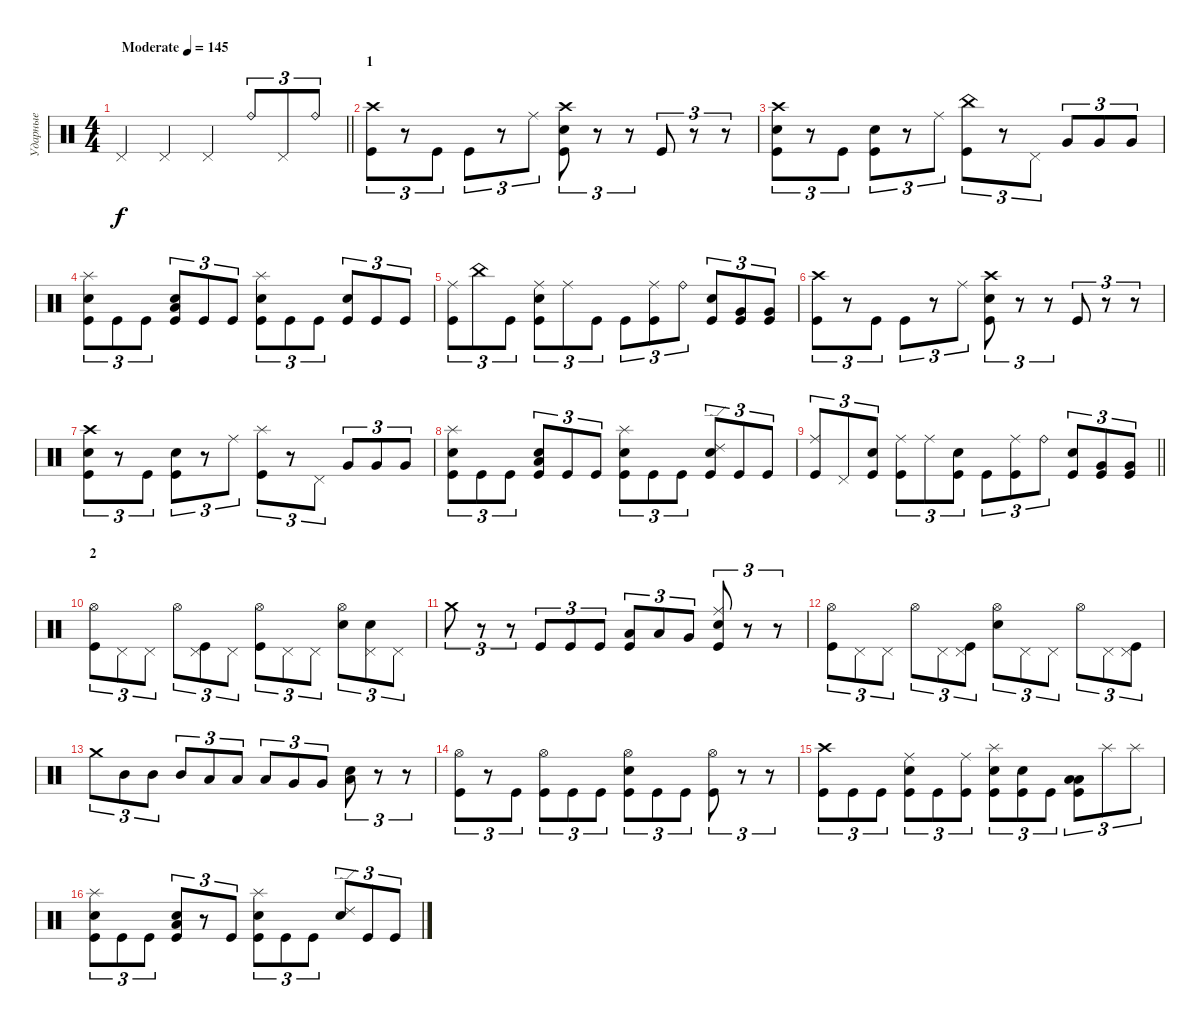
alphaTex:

\track ("Ударные" "Ударные") {instrument percussion}
\staff {score}
\articulation defaults
\ts (4 4)
\tempo (145 "Moderate")
\clef neutral
\barLineRight lightlight
\ks c "Pedal Hi-Hat (hit)".4{dy f} "Pedal Hi-Hat (hit)".4 "Pedal Hi-Hat (hit)".4 "Ride (bell)".8{tu (3 2)} "Pedal Hi-Hat (hit)".8{tu (3 2)} "Ride (bell)".8{tu (3 2)}
|
\section ("" "1")
("Crash high (hit)" "Kick (hit)").8{tu (3 2)} r.8{tu (3 2)} "Kick (hit)".8{tu (3 2)} "Kick (hit)".8{tu (3 2)} r.8{tu (3 2)} "Ride (middle)".8{tu (3 2)} ("Crash high (hit)" "Electric Snare (hit)" "Kick (hit)").8{tu (3 2)} r.8{tu (3 2)} r.8{tu (3 2)} "Kick (hit)".8{tu (3 2)} r.8{tu (3 2)} r.8{tu (3 2)} |
("Crash high (hit)" "Electric Snare (hit)" "Kick (hit)").8{tu (3 2)} r.8{tu (3 2)} "Kick (hit)".8{tu (3 2)} ("Electric Snare (hit)" "Kick (hit)").8{tu (3 2)} r.8{tu (3 2)} "Ride (middle)".8{tu (3 2)} ("China (hit)" "Kick (hit)").8{tu (3 2)} r.8{tu (3 2)} "Pedal Hi-Hat (hit)".8{tu (3 2)} "Very Low Tom (hit)".8{tu (3 2)} "Very Low Tom (hit)".8{tu (3 2)} "Very Low Tom (hit)".8{tu (3 2)} |
("Splash (hit)" "Electric Snare (hit)" "Kick (hit)").8{tu (3 2)} "Kick (hit)".8{tu (3 2)} "Kick (hit)".8{tu (3 2)} ("Low Tom (hit)" "Electric Snare (hit)" "Kick (hit)").8{tu (3 2)} "Kick (hit)".8{tu (3 2)} "Kick (hit)".8{tu (3 2)} ("Splash (hit)" "Electric Snare (hit)" "Kick (hit)").8{tu (3 2)} "Kick (hit)".8{tu (3 2)} "Kick (hit)".8{tu (3 2)} ("Electric Snare (hit)" "Kick (hit)").8{tu (3 2)} "Kick (hit)".8{tu (3 2)} "Kick (hit)".8{tu (3 2)} |
("Ride (middle)" "Kick (hit)").8{tu (3 2)} "China (hit)".8{tu (3 2)} "Kick (hit)".8{tu (3 2)} ("Ride (middle)" "Electric Snare (hit)" "Kick (hit)").8{tu (3 2)} "Ride (middle)".8{tu (3 2)} "Kick (hit)".8{tu (3 2)} "Kick (hit)".8{tu (3 2)} ("Ride (middle)" "Kick (hit)").8{tu (3 2)} "Ride (bell)".8{tu (3 2)} ("Electric Snare (hit)" "Kick (hit)").8{tu (3 2)} ("Very Low Tom (hit)" "Kick (hit)").8{tu (3 2)} ("Very Low Tom (hit)" "Kick (hit)").8{tu (3 2)} |
("Crash high (hit)" "Kick (hit)").8{tu (3 2)} r.8{tu (3 2)} "Kick (hit)".8{tu (3 2)} "Kick (hit)".8{tu (3 2)} r.8{tu (3 2)} "Ride (middle)".8{tu (3 2)} ("Crash high (hit)" "Electric Snare (hit)" "Kick (hit)").8{tu (3 2)} r.8{tu (3 2)} r.8{tu (3 2)} "Kick (hit)".8{tu (3 2)} r.8{tu (3 2)} r.8{tu (3 2)} |
("Crash high (hit)" "Electric Snare (hit)" "Kick (hit)").8{tu (3 2)} r.8{tu (3 2)} "Kick (hit)".8{tu (3 2)} ("Electric Snare (hit)" "Kick (hit)").8{tu (3 2)} r.8{tu (3 2)} "Ride (middle)".8{tu (3 2)} ("Splash (hit)" "Kick (hit)").8{tu (3 2)} r.8{tu (3 2)} "Pedal Hi-Hat (hit)".8{tu (3 2)} "Very Low Tom (hit)".8{tu (3 2)} "Very Low Tom (hit)".8{tu (3 2)} "Very Low Tom (hit)".8{tu (3 2)} |
("Splash (hit)" "Electric Snare (hit)" "Kick (hit)").8{tu (3 2)} "Kick (hit)".8{tu (3 2)} "Kick (hit)".8{tu (3 2)} ("Low Tom (hit)" "Electric Snare (hit)" "Kick (hit)").8{tu (3 2)} "Kick (hit)".8{tu (3 2)} "Kick (hit)".8{tu (3 2)} ("Splash (hit)" "Electric Snare (hit)" "Kick (hit)").8{tu (3 2)} "Kick (hit)".8{tu (3 2)} "Kick (hit)".8{tu (3 2)} ("Ride (edge) 2" "Electric Snare (hit)" "Kick (hit)").8{tu (3 2)} "Kick (hit)".8{tu (3 2)} "Kick (hit)".8{tu (3 2)} |
\barLineRight lightlight
("Ride (middle)" "Kick (hit)").8{tu (3 2)} "Pedal Hi-Hat (hit)".8{tu (3 2)} ("Electric Snare (hit)" "Kick (hit)").8{tu (3 2)} ("Ride (middle)" "Kick (hit)").8{tu (3 2)} "Ride (middle)".8{tu (3 2)} ("Electric Snare (hit)" "Kick (hit)").8{tu (3 2)} "Kick (hit)".8{tu (3 2)} ("Ride (middle)" "Kick (hit)").8{tu (3 2)} "Ride (bell)".8{tu (3 2)} ("Electric Snare (hit)" "Kick (hit)").8{tu (3 2)} ("Very Low Tom (hit)" "Kick (hit)").8{tu (3 2)} ("Very Low Tom (hit)" "Kick (hit)").8{tu (3 2)} |
\section ("" "2")
("Hi-Hat (open)" "Kick (hit)").8{tu (3 2)} "Pedal Hi-Hat (hit)".8{tu (3 2)} "Pedal Hi-Hat (hit)".8{tu (3 2)} "Hi-Hat (open)".8{tu (3 2)} ("Pedal Hi-Hat (hit)" "Kick (hit)").8{tu (3 2)} "Pedal Hi-Hat (hit)".8{tu (3 2)} ("Hi-Hat (open)" "Kick (hit)").8{tu (3 2)} "Pedal Hi-Hat (hit)".8{tu (3 2)} "Pedal Hi-Hat (hit)".8{tu (3 2)} ("Hi-Hat (open)" "Electric Snare (hit)").8{tu (3 2)} ("Pedal Hi-Hat (hit)" "Electric Snare (hit)").8{tu (3 2)} "Pedal Hi-Hat (hit)".8{tu (3 2)} |
"Crash medium (hit)".8{tu (3 2)} r.8{tu (3 2)} r.8{tu (3 2)} "Kick (hit)".8{tu (3 2)} "Kick (hit)".8{tu (3 2)} "Kick (hit)".8{tu (3 2)} ("Low Tom (hit)" "Kick (hit)").8{tu (3 2)} "Low Tom (hit)".8{tu (3 2)} "Very Low Tom (hit)".8{tu (3 2)} ("Ride (middle)" "Electric Snare (hit)" "Kick (hit)").8{tu (3 2)} r.8{tu (3 2)} r.8{tu (3 2)} |
("Hi-Hat (open)" "Kick (hit)").8{tu (3 2)} "Pedal Hi-Hat (hit)".8{tu (3 2)} "Pedal Hi-Hat (hit)".8{tu (3 2)} "Hi-Hat (open)".8{tu (3 2)} "Pedal Hi-Hat (hit)".8{tu (3 2)} ("Pedal Hi-Hat (hit)" "Kick (hit)").8{tu (3 2)} ("Hi-Hat (open)" "Electric Snare (hit)").8{tu (3 2)} "Pedal Hi-Hat (hit)".8{tu (3 2)} "Pedal Hi-Hat (hit)".8{tu (3 2)} "Hi-Hat (open)".8{tu (3 2)} "Pedal Hi-Hat (hit)".8{tu (3 2)} ("Pedal Hi-Hat (hit)" "Kick (hit)").8{tu (3 2)} |
"Crash medium (hit)".8{tu (3 2)} "Mid Tom (hit)".8{tu (3 2)} "Mid Tom (hit)".8{tu (3 2)} "Mid Tom (hit)".8{tu (3 2)} "Low Tom (hit)".8{tu (3 2)} "Low Tom (hit)".8{tu (3 2)} "Low Tom (hit)".8{tu (3 2)} "Very Low Tom (hit)".8{tu (3 2)} "Very Low Tom (hit)".8{tu (3 2)} ("Low Floor Tom (hit)" "Electric Snare (hit)").8{tu (3 2)} r.8{tu (3 2)} r.8{tu (3 2)} |
("Hi-Hat (open)" "Kick (hit)").8{tu (3 2)} r.8{tu (3 2)} "Kick (hit)".8{tu (3 2)} ("Hi-Hat (open)" "Kick (hit)").8{tu (3 2)} "Kick (hit)".8{tu (3 2)} "Kick (hit)".8{tu (3 2)} ("Hi-Hat (open)" "Electric Snare (hit)" "Kick (hit)").8{tu (3 2)} "Kick (hit)".8{tu (3 2)} "Kick (hit)".8{tu (3 2)} ("Hi-Hat (open)" "Kick (hit)").8{tu (3 2)} r.8{tu (3 2)} r.8{tu (3 2)} |
("Crash high (hit)" "Kick (hit)").8{tu (3 2)} "Kick (hit)".8{tu (3 2)} "Kick (hit)".8{tu (3 2)} ("Ride (middle)" "Electric Snare (hit)" "Kick (hit)").8{tu (3 2)} "Kick (hit)".8{tu (3 2)} ("Ride (middle)" "Kick (hit)").8{tu (3 2)} ("Splash (hit)" "Electric Snare (hit)" "Kick (hit)").8{tu (3 2)} ("Electric Snare (hit)" "Kick (hit)").8{tu (3 2)} "Kick (hit)".8{tu (3 2)} ("Low Tom (hit)" "Low Floor Tom (hit)" "Kick (hit)").8{tu (3 2)} "Splash (hit)".8{tu (3 2)} "Splash (hit)".8{tu (3 2)} |
("Splash (hit)" "Electric Snare (hit)" "Kick (hit)").8{tu (3 2)} "Kick (hit)".8{tu (3 2)} "Kick (hit)".8{tu (3 2)} ("Low Tom (hit)" "Electric Snare (hit)" "Kick (hit)").8{tu (3 2)} r.8{tu (3 2)} "Kick (hit)".8{tu (3 2)} ("Splash (hit)" "Electric Snare (hit)" "Kick (hit)").8{tu (3 2)} "Kick (hit)".8{tu (3 2)} "Kick (hit)".8{tu (3 2)} ("Ride (edge) 2" "Electric Snare (hit)").8{tu (3 2)} "Kick (hit)".8{tu (3 2)} "Kick (hit)".8{tu (3 2)}
